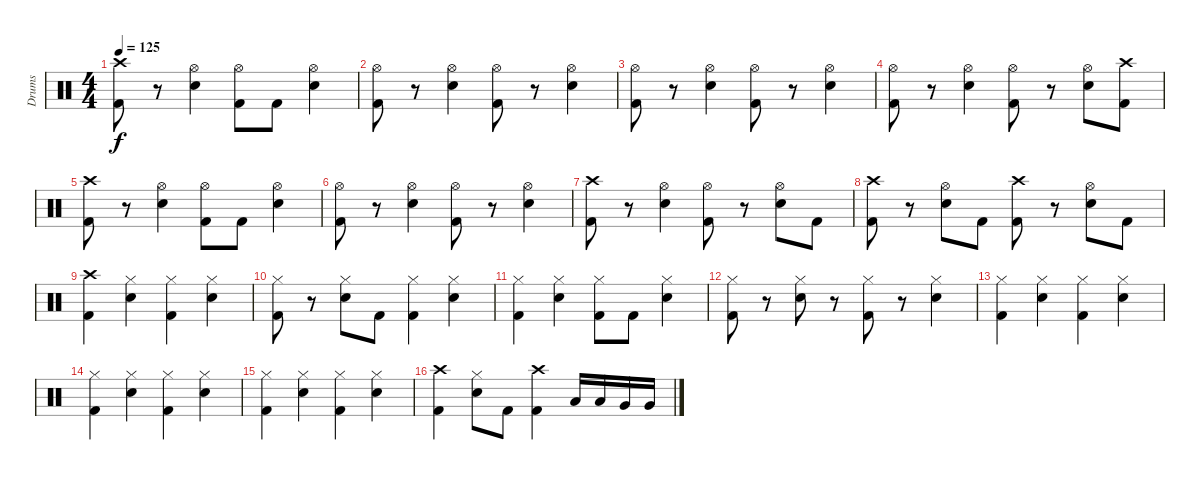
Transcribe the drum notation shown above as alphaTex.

\track ("Drums" "Drums") {instrument percussion}
\staff {score}
\articulation defaults
\ts (4 4)
\tempo 125
\clef neutral
\ks c
("Crash high (hit)" "Kick (hit) 2").8{dy f} r.8 ("Hi-Hat (open)" "Snare (hit) 2").4 ("Hi-Hat (open)" "Kick (hit) 2").8 "Kick (hit) 2".8 ("Hi-Hat (open)" "Snare (hit) 2").4 |
("Hi-Hat (open)" "Kick (hit) 2").8 r.8 ("Hi-Hat (open)" "Snare (hit) 2").4 ("Hi-Hat (open)" "Kick (hit) 2").8 r.8 ("Hi-Hat (open)" "Snare (hit) 2").4 |
("Hi-Hat (open)" "Kick (hit) 2").8 r.8 ("Hi-Hat (open)" "Snare (hit) 2").4 ("Hi-Hat (open)" "Kick (hit) 2").8 r.8 ("Hi-Hat (open)" "Snare (hit) 2").4 |
("Hi-Hat (open)" "Kick (hit) 2").8 r.8 ("Hi-Hat (open)" "Snare (hit) 2").4 ("Hi-Hat (open)" "Kick (hit) 2").8 r.8 ("Hi-Hat (open)" "Snare (hit) 2").8 ("Crash high (hit)" "Kick (hit) 2").8 |
("Crash high (hit)" "Kick (hit) 2").8 r.8 ("Hi-Hat (open)" "Snare (hit) 2").4 ("Hi-Hat (open)" "Kick (hit) 2").8 "Kick (hit) 2".8 ("Hi-Hat (open)" "Snare (hit) 2").4 |
("Hi-Hat (open)" "Kick (hit) 2").8 r.8 ("Hi-Hat (open)" "Snare (hit) 2").4 ("Hi-Hat (open)" "Kick (hit) 2").8 r.8 ("Hi-Hat (open)" "Snare (hit) 2").4 |
("Crash high (hit)" "Kick (hit) 2").8 r.8 ("Hi-Hat (open)" "Snare (hit) 2").4 ("Hi-Hat (open)" "Kick (hit) 2").8 r.8 ("Hi-Hat (open)" "Snare (hit) 2").8 "Kick (hit) 2".8 |
("Crash high (hit)" "Kick (hit) 2").8 r.8 ("Hi-Hat (open)" "Snare (hit) 2").8 "Kick (hit) 2".8 ("Crash high (hit)" "Kick (hit) 2").8 r.8 ("Hi-Hat (open)" "Snare (hit) 2").8 "Kick (hit) 2".8 |
("Crash high (hit)" "Kick (hit) 2").4 ("Hi-Hat (closed)" "Snare (hit) 2").4 ("Hi-Hat (closed)" "Kick (hit) 2").4 ("Hi-Hat (closed)" "Snare (hit) 2").4 |
("Hi-Hat (closed)" "Kick (hit) 2").8 r.8 ("Hi-Hat (closed)" "Snare (hit) 2").8 "Kick (hit) 2".8 ("Hi-Hat (closed)" "Kick (hit) 2").4 ("Hi-Hat (closed)" "Snare (hit) 2").4 |
("Hi-Hat (closed)" "Kick (hit) 2").4 ("Hi-Hat (closed)" "Snare (hit) 2").4 ("Hi-Hat (closed)" "Kick (hit) 2").8 "Kick (hit) 2".8 ("Hi-Hat (closed)" "Snare (hit) 2").4 |
("Hi-Hat (closed)" "Kick (hit) 2").8 r.8 ("Hi-Hat (closed)" "Snare (hit) 2").8 r.8 ("Hi-Hat (closed)" "Kick (hit) 2").8 r.8 ("Hi-Hat (closed)" "Snare (hit) 2").4 |
("Hi-Hat (closed)" "Kick (hit) 2").4 ("Hi-Hat (closed)" "Snare (hit) 2").4 ("Hi-Hat (closed)" "Kick (hit) 2").4 ("Hi-Hat (closed)" "Snare (hit) 2").4 |
("Hi-Hat (closed)" "Kick (hit) 2").4 ("Hi-Hat (closed)" "Snare (hit) 2").4 ("Hi-Hat (closed)" "Kick (hit) 2").4 ("Hi-Hat (closed)" "Snare (hit) 2").4 |
("Hi-Hat (closed)" "Kick (hit) 2").4 ("Hi-Hat (closed)" "Snare (hit) 2").4 ("Hi-Hat (closed)" "Kick (hit) 2").4 ("Hi-Hat (closed)" "Snare (hit) 2").4 |
("Crash high (hit)" "Kick (hit) 2").4 ("Hi-Hat (closed)" "Snare (hit) 2").8 "Kick (hit) 2".8 ("Crash high (hit)" "Kick (hit) 2").4 "Low Tom (hit)".16 "Low Tom (hit)".16 "Very Low Tom (hit)".16 "Very Low Tom (hit)".16
